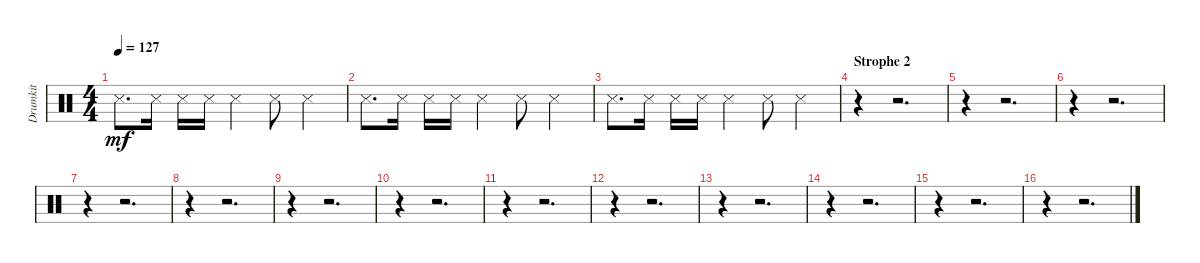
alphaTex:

\track ("Drumkit" "Drumkit") {instrument percussion}
\staff {score}
\articulation defaults
\ts (4 4)
\tempo 127
\clef neutral
\ks c "Snare (side stick) 3".8{d dy mf} "Snare (side stick) 3".16 "Snare (side stick) 3".16 "Snare (side stick) 3".16 "Snare (side stick) 3".4 "Snare (side stick) 3".8 "Snare (side stick) 3".4
|
"Snare (side stick) 3".8{d} "Snare (side stick) 3".16 "Snare (side stick) 3".16 "Snare (side stick) 3".16 "Snare (side stick) 3".4 "Snare (side stick) 3".8 "Snare (side stick) 3".4 |
"Snare (side stick) 3".8{d} "Snare (side stick) 3".16 "Snare (side stick) 3".16 "Snare (side stick) 3".16 "Snare (side stick) 3".4 "Snare (side stick) 3".8 "Snare (side stick) 3".4 |
\section ("" "Strophe 2")
r.4 r.2{d} |
r.4 r.2{d} |
r.4 r.2{d} |
r.4 r.2{d} |
r.4 r.2{d} |
r.4 r.2{d} |
r.4 r.2{d} |
r.4 r.2{d} |
r.4 r.2{d} |
r.4 r.2{d} |
r.4 r.2{d} |
r.4 r.2{d} |
r.4 r.2{d}
